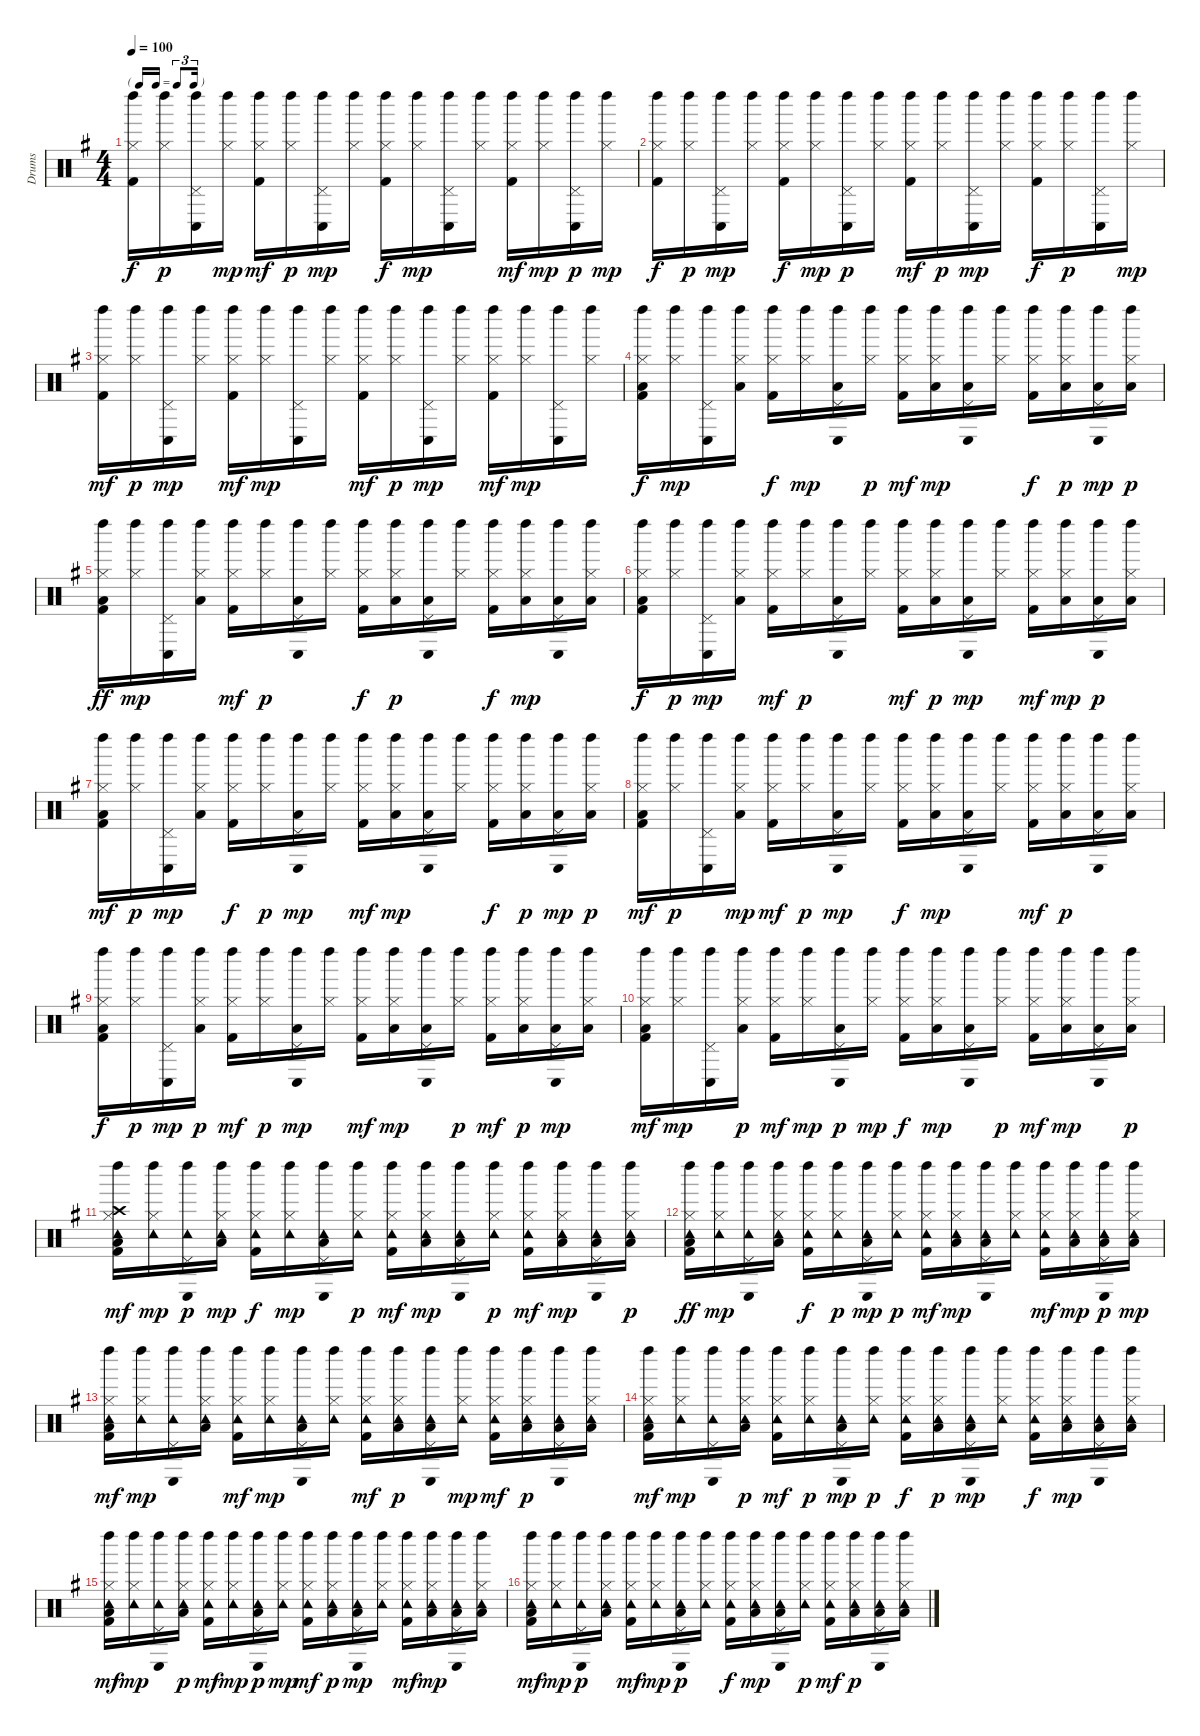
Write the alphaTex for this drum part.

\track ("Drums" "Drums") {instrument percussion}
\staff {score}
\articulation defaults
\ts (4 4)
\tf triplet16th
\tempo 100
\clef neutral
\ks g
("Kick (hit) 2" "Hi-Hat (closed)" "Left Maraca (hit)").16{dy f} ("Hi-Hat (closed)" "Left Maraca (hit)").16{dy p} ("Pedal Hi-Hat (hit)" "Conga low (hit)" "Left Maraca (hit)").16 ("Hi-Hat (closed)" "Left Maraca (hit)").16{dy mp} ("Kick (hit) 2" "Hi-Hat (closed)" "Left Maraca (hit)").16{dy mf} ("Hi-Hat (closed)" "Left Maraca (hit)").16{dy p} ("Pedal Hi-Hat (hit)" "Conga low (hit)" "Left Maraca (hit)").16{dy mp} ("Hi-Hat (closed)" "Left Maraca (hit)").16 ("Kick (hit) 2" "Hi-Hat (closed)" "Left Maraca (hit)").16{dy f} ("Hi-Hat (closed)" "Left Maraca (hit)").16{dy mp} ("Pedal Hi-Hat (hit)" "Conga low (hit)" "Left Maraca (hit)").16 ("Hi-Hat (closed)" "Left Maraca (hit)").16 ("Kick (hit) 2" "Hi-Hat (closed)" "Left Maraca (hit)").16{dy mf} ("Hi-Hat (closed)" "Left Maraca (hit)").16{dy mp} ("Pedal Hi-Hat (hit)" "Conga low (hit)" "Left Maraca (hit)").16{dy p} ("Hi-Hat (closed)" "Left Maraca (hit)").16{dy mp} |
("Kick (hit) 2" "Hi-Hat (closed)" "Left Maraca (hit)").16{dy f} ("Hi-Hat (closed)" "Left Maraca (hit)").16{dy p} ("Pedal Hi-Hat (hit)" "Conga low (hit)" "Left Maraca (hit)").16{dy mp} ("Hi-Hat (closed)" "Left Maraca (hit)").16 ("Kick (hit) 2" "Hi-Hat (closed)" "Left Maraca (hit)").16{dy f} ("Hi-Hat (closed)" "Left Maraca (hit)").16{dy mp} ("Pedal Hi-Hat (hit)" "Conga low (hit)" "Left Maraca (hit)").16{dy p} ("Hi-Hat (closed)" "Left Maraca (hit)").16 ("Kick (hit) 2" "Hi-Hat (closed)" "Left Maraca (hit)").16{dy mf} ("Hi-Hat (closed)" "Left Maraca (hit)").16{dy p} ("Pedal Hi-Hat (hit)" "Conga low (hit)" "Left Maraca (hit)").16{dy mp} ("Hi-Hat (closed)" "Left Maraca (hit)").16 ("Kick (hit) 2" "Hi-Hat (closed)" "Left Maraca (hit)").16{dy f} ("Hi-Hat (closed)" "Left Maraca (hit)").16{dy p} ("Pedal Hi-Hat (hit)" "Conga low (hit)" "Left Maraca (hit)").16 ("Hi-Hat (closed)" "Left Maraca (hit)").16{dy mp} |
("Kick (hit) 2" "Hi-Hat (closed)" "Left Maraca (hit)").16{dy mf} ("Hi-Hat (closed)" "Left Maraca (hit)").16{dy p} ("Pedal Hi-Hat (hit)" "Conga low (hit)" "Left Maraca (hit)").16{dy mp} ("Hi-Hat (closed)" "Left Maraca (hit)").16 ("Kick (hit) 2" "Hi-Hat (closed)" "Left Maraca (hit)").16{dy mf} ("Hi-Hat (closed)" "Left Maraca (hit)").16{dy mp} ("Pedal Hi-Hat (hit)" "Conga low (hit)" "Left Maraca (hit)").16 ("Hi-Hat (closed)" "Left Maraca (hit)").16 ("Kick (hit) 2" "Hi-Hat (closed)" "Left Maraca (hit)").16{dy mf} ("Hi-Hat (closed)" "Left Maraca (hit)").16{dy p} ("Pedal Hi-Hat (hit)" "Conga low (hit)" "Left Maraca (hit)").16{dy mp} ("Hi-Hat (closed)" "Left Maraca (hit)").16 ("Kick (hit) 2" "Hi-Hat (closed)" "Left Maraca (hit)").16{dy mf} ("Hi-Hat (closed)" "Left Maraca (hit)").16{dy mp} ("Pedal Hi-Hat (hit)" "Conga low (hit)" "Left Maraca (hit)").16 ("Hi-Hat (closed)" "Left Maraca (hit)").16 |
("Kick (hit) 2" "Low Floor Tom (hit)" "Hi-Hat (closed)" "Left Maraca (hit)").16{dy f} ("Hi-Hat (closed)" "Left Maraca (hit)").16{dy mp} ("Pedal Hi-Hat (hit)" "Conga low (hit)" "Left Maraca (hit)").16 ("Low Floor Tom (hit)" "Hi-Hat (closed)" "Left Maraca (hit)").16 ("Kick (hit) 2" "Hi-Hat (closed)" "Left Maraca (hit)").16{dy f} ("Hi-Hat (closed)" "Left Maraca (hit)").16{dy mp} ("Low Floor Tom (hit)" "Pedal Hi-Hat (hit)" "Conga low (hit)" "Left Maraca (hit)").16 ("Hi-Hat (closed)" "Left Maraca (hit)").16{dy p} ("Kick (hit) 2" "Hi-Hat (closed)" "Left Maraca (hit)").16{dy mf} ("Low Floor Tom (hit)" "Hi-Hat (closed)" "Left Maraca (hit)").16{dy mp} ("Low Floor Tom (hit)" "Pedal Hi-Hat (hit)" "Conga low (hit)" "Left Maraca (hit)").16 ("Hi-Hat (closed)" "Left Maraca (hit)").16 ("Kick (hit) 2" "Hi-Hat (closed)" "Left Maraca (hit)").16{dy f} ("Low Floor Tom (hit)" "Hi-Hat (closed)" "Left Maraca (hit)").16{dy p} ("Low Floor Tom (hit)" "Pedal Hi-Hat (hit)" "Conga low (hit)" "Left Maraca (hit)").16{dy mp} ("Low Floor Tom (hit)" "Hi-Hat (closed)" "Left Maraca (hit)").16{dy p} |
("Kick (hit) 2" "Low Floor Tom (hit)" "Hi-Hat (closed)" "Left Maraca (hit)").16{dy ff} ("Hi-Hat (closed)" "Left Maraca (hit)").16{dy mp} ("Pedal Hi-Hat (hit)" "Conga low (hit)" "Left Maraca (hit)").16 ("Low Floor Tom (hit)" "Hi-Hat (closed)" "Left Maraca (hit)").16 ("Kick (hit) 2" "Hi-Hat (closed)" "Left Maraca (hit)").16{dy mf} ("Hi-Hat (closed)" "Left Maraca (hit)").16{dy p} ("Low Floor Tom (hit)" "Pedal Hi-Hat (hit)" "Conga low (hit)" "Left Maraca (hit)").16 ("Hi-Hat (closed)" "Left Maraca (hit)").16 ("Kick (hit) 2" "Hi-Hat (closed)" "Left Maraca (hit)").16{dy f} ("Low Floor Tom (hit)" "Hi-Hat (closed)" "Left Maraca (hit)").16{dy p} ("Low Floor Tom (hit)" "Pedal Hi-Hat (hit)" "Conga low (hit)" "Left Maraca (hit)").16 ("Hi-Hat (closed)" "Left Maraca (hit)").16 ("Kick (hit) 2" "Hi-Hat (closed)" "Left Maraca (hit)").16{dy f} ("Low Floor Tom (hit)" "Hi-Hat (closed)" "Left Maraca (hit)").16{dy mp} ("Low Floor Tom (hit)" "Pedal Hi-Hat (hit)" "Conga low (hit)" "Left Maraca (hit)").16 ("Low Floor Tom (hit)" "Hi-Hat (closed)" "Left Maraca (hit)").16 |
("Kick (hit) 2" "Low Floor Tom (hit)" "Hi-Hat (closed)" "Left Maraca (hit)").16{dy f} ("Hi-Hat (closed)" "Left Maraca (hit)").16{dy p} ("Pedal Hi-Hat (hit)" "Conga low (hit)" "Left Maraca (hit)").16{dy mp} ("Low Floor Tom (hit)" "Hi-Hat (closed)" "Left Maraca (hit)").16 ("Kick (hit) 2" "Hi-Hat (closed)" "Left Maraca (hit)").16{dy mf} ("Hi-Hat (closed)" "Left Maraca (hit)").16{dy p} ("Low Floor Tom (hit)" "Pedal Hi-Hat (hit)" "Conga low (hit)" "Left Maraca (hit)").16 ("Hi-Hat (closed)" "Left Maraca (hit)").16 ("Kick (hit) 2" "Hi-Hat (closed)" "Left Maraca (hit)").16{dy mf} ("Low Floor Tom (hit)" "Hi-Hat (closed)" "Left Maraca (hit)").16{dy p} ("Low Floor Tom (hit)" "Pedal Hi-Hat (hit)" "Conga low (hit)" "Left Maraca (hit)").16{dy mp} ("Hi-Hat (closed)" "Left Maraca (hit)").16 ("Kick (hit) 2" "Hi-Hat (closed)" "Left Maraca (hit)").16{dy mf} ("Low Floor Tom (hit)" "Hi-Hat (closed)" "Left Maraca (hit)").16{dy mp} ("Low Floor Tom (hit)" "Pedal Hi-Hat (hit)" "Conga low (hit)" "Left Maraca (hit)").16{dy p} ("Low Floor Tom (hit)" "Hi-Hat (closed)" "Left Maraca (hit)").16 |
("Kick (hit) 2" "Low Floor Tom (hit)" "Hi-Hat (closed)" "Left Maraca (hit)").16{dy mf} ("Hi-Hat (closed)" "Left Maraca (hit)").16{dy p} ("Pedal Hi-Hat (hit)" "Conga low (hit)" "Left Maraca (hit)").16{dy mp} ("Low Floor Tom (hit)" "Hi-Hat (closed)" "Left Maraca (hit)").16 ("Kick (hit) 2" "Hi-Hat (closed)" "Left Maraca (hit)").16{dy f} ("Hi-Hat (closed)" "Left Maraca (hit)").16{dy p} ("Low Floor Tom (hit)" "Pedal Hi-Hat (hit)" "Conga low (hit)" "Left Maraca (hit)").16{dy mp} ("Hi-Hat (closed)" "Left Maraca (hit)").16 ("Kick (hit) 2" "Hi-Hat (closed)" "Left Maraca (hit)").16{dy mf} ("Low Floor Tom (hit)" "Hi-Hat (closed)" "Left Maraca (hit)").16{dy mp} ("Low Floor Tom (hit)" "Pedal Hi-Hat (hit)" "Conga low (hit)" "Left Maraca (hit)").16 ("Hi-Hat (closed)" "Left Maraca (hit)").16 ("Kick (hit) 2" "Hi-Hat (closed)" "Left Maraca (hit)").16{dy f} ("Low Floor Tom (hit)" "Hi-Hat (closed)" "Left Maraca (hit)").16{dy p} ("Low Floor Tom (hit)" "Pedal Hi-Hat (hit)" "Conga low (hit)" "Left Maraca (hit)").16{dy mp} ("Low Floor Tom (hit)" "Hi-Hat (closed)" "Left Maraca (hit)").16{dy p} |
("Kick (hit) 2" "Low Floor Tom (hit)" "Hi-Hat (closed)" "Left Maraca (hit)").16{dy mf} ("Hi-Hat (closed)" "Left Maraca (hit)").16{dy p} ("Pedal Hi-Hat (hit)" "Conga low (hit)" "Left Maraca (hit)").16 ("Low Floor Tom (hit)" "Hi-Hat (closed)" "Left Maraca (hit)").16{dy mp} ("Kick (hit) 2" "Hi-Hat (closed)" "Left Maraca (hit)").16{dy mf} ("Hi-Hat (closed)" "Left Maraca (hit)").16{dy p} ("Low Floor Tom (hit)" "Pedal Hi-Hat (hit)" "Conga low (hit)" "Left Maraca (hit)").16{dy mp} ("Hi-Hat (closed)" "Left Maraca (hit)").16 ("Kick (hit) 2" "Hi-Hat (closed)" "Left Maraca (hit)").16{dy f} ("Low Floor Tom (hit)" "Hi-Hat (closed)" "Left Maraca (hit)").16{dy mp} ("Low Floor Tom (hit)" "Pedal Hi-Hat (hit)" "Conga low (hit)" "Left Maraca (hit)").16 ("Hi-Hat (closed)" "Left Maraca (hit)").16 ("Kick (hit) 2" "Hi-Hat (closed)" "Left Maraca (hit)").16{dy mf} ("Low Floor Tom (hit)" "Hi-Hat (closed)" "Left Maraca (hit)").16{dy p} ("Low Floor Tom (hit)" "Pedal Hi-Hat (hit)" "Conga low (hit)" "Left Maraca (hit)").16 ("Low Floor Tom (hit)" "Hi-Hat (closed)" "Left Maraca (hit)").16 |
("Kick (hit) 2" "Low Floor Tom (hit)" "Hi-Hat (closed)" "Left Maraca (hit)").16{dy f} ("Hi-Hat (closed)" "Left Maraca (hit)").16{dy p} ("Pedal Hi-Hat (hit)" "Conga low (hit)" "Left Maraca (hit)").16{dy mp} ("Low Floor Tom (hit)" "Hi-Hat (closed)" "Left Maraca (hit)").16{dy p} ("Kick (hit) 2" "Hi-Hat (closed)" "Left Maraca (hit)").16{dy mf} ("Hi-Hat (closed)" "Left Maraca (hit)").16{dy p} ("Low Floor Tom (hit)" "Pedal Hi-Hat (hit)" "Conga low (hit)" "Left Maraca (hit)").16{dy mp} ("Hi-Hat (closed)" "Left Maraca (hit)").16 ("Kick (hit) 2" "Hi-Hat (closed)" "Left Maraca (hit)").16{dy mf} ("Low Floor Tom (hit)" "Hi-Hat (closed)" "Left Maraca (hit)").16{dy mp} ("Low Floor Tom (hit)" "Pedal Hi-Hat (hit)" "Conga low (hit)" "Left Maraca (hit)").16 ("Hi-Hat (closed)" "Left Maraca (hit)").16{dy p} ("Kick (hit) 2" "Hi-Hat (closed)" "Left Maraca (hit)").16{dy mf} ("Low Floor Tom (hit)" "Hi-Hat (closed)" "Left Maraca (hit)").16{dy p} ("Low Floor Tom (hit)" "Pedal Hi-Hat (hit)" "Conga low (hit)" "Left Maraca (hit)").16{dy mp} ("Low Floor Tom (hit)" "Hi-Hat (closed)" "Left Maraca (hit)").16 |
("Kick (hit) 2" "Low Floor Tom (hit)" "Hi-Hat (closed)" "Left Maraca (hit)").16{dy mf} ("Hi-Hat (closed)" "Left Maraca (hit)").16{dy mp} ("Pedal Hi-Hat (hit)" "Conga low (hit)" "Left Maraca (hit)").16 ("Low Floor Tom (hit)" "Hi-Hat (closed)" "Left Maraca (hit)").16{dy p} ("Kick (hit) 2" "Hi-Hat (closed)" "Left Maraca (hit)").16{dy mf} ("Hi-Hat (closed)" "Left Maraca (hit)").16{dy mp} ("Low Floor Tom (hit)" "Pedal Hi-Hat (hit)" "Conga low (hit)" "Left Maraca (hit)").16{dy p} ("Hi-Hat (closed)" "Left Maraca (hit)").16{dy mp} ("Kick (hit) 2" "Hi-Hat (closed)" "Left Maraca (hit)").16{dy f} ("Low Floor Tom (hit)" "Hi-Hat (closed)" "Left Maraca (hit)").16{dy mp} ("Low Floor Tom (hit)" "Pedal Hi-Hat (hit)" "Conga low (hit)" "Left Maraca (hit)").16 ("Hi-Hat (closed)" "Left Maraca (hit)").16{dy p} ("Kick (hit) 2" "Hi-Hat (closed)" "Left Maraca (hit)").16{dy mf} ("Low Floor Tom (hit)" "Hi-Hat (closed)" "Left Maraca (hit)").16{dy mp} ("Low Floor Tom (hit)" "Pedal Hi-Hat (hit)" "Conga low (hit)" "Left Maraca (hit)").16 ("Low Floor Tom (hit)" "Hi-Hat (closed)" "Left Maraca (hit)").16{dy p} |
("Kick (hit) 2" "Low Floor Tom (hit)" "Hi-Hat (closed)" "Crash high (hit)" "Tambourine (hit)" "Left Maraca (hit)").16{dy mf} ("Hi-Hat (closed)" "Tambourine (hit)" "Left Maraca (hit)").16{dy mp} ("Pedal Hi-Hat (hit)" "Tambourine (hit)" "Conga low (hit)" "Left Maraca (hit)").16{dy p} ("Low Floor Tom (hit)" "Hi-Hat (closed)" "Tambourine (hit)" "Left Maraca (hit)").16{dy mp} ("Kick (hit) 2" "Hi-Hat (closed)" "Tambourine (hit)" "Left Maraca (hit)").16{dy f} ("Hi-Hat (closed)" "Tambourine (hit)" "Left Maraca (hit)").16{dy mp} ("Low Floor Tom (hit)" "Pedal Hi-Hat (hit)" "Tambourine (hit)" "Conga low (hit)" "Left Maraca (hit)").16 ("Hi-Hat (closed)" "Tambourine (hit)" "Left Maraca (hit)").16{dy p} ("Kick (hit) 2" "Hi-Hat (closed)" "Tambourine (hit)" "Left Maraca (hit)").16{dy mf} ("Low Floor Tom (hit)" "Hi-Hat (closed)" "Tambourine (hit)" "Left Maraca (hit)").16{dy mp} ("Low Floor Tom (hit)" "Pedal Hi-Hat (hit)" "Tambourine (hit)" "Conga low (hit)" "Left Maraca (hit)").16 ("Hi-Hat (closed)" "Tambourine (hit)" "Left Maraca (hit)").16{dy p} ("Kick (hit) 2" "Hi-Hat (closed)" "Tambourine (hit)" "Left Maraca (hit)").16{dy mf} ("Low Floor Tom (hit)" "Hi-Hat (closed)" "Tambourine (hit)" "Left Maraca (hit)").16{dy mp} ("Low Floor Tom (hit)" "Pedal Hi-Hat (hit)" "Tambourine (hit)" "Conga low (hit)" "Left Maraca (hit)").16 ("Low Floor Tom (hit)" "Hi-Hat (closed)" "Tambourine (hit)" "Left Maraca (hit)").16{dy p} |
("Kick (hit) 2" "Low Floor Tom (hit)" "Hi-Hat (closed)" "Tambourine (hit)" "Left Maraca (hit)").16{dy ff} ("Hi-Hat (closed)" "Tambourine (hit)" "Left Maraca (hit)").16{dy mp} ("Pedal Hi-Hat (hit)" "Tambourine (hit)" "Conga low (hit)" "Left Maraca (hit)").16 ("Low Floor Tom (hit)" "Hi-Hat (closed)" "Tambourine (hit)" "Left Maraca (hit)").16 ("Kick (hit) 2" "Hi-Hat (closed)" "Tambourine (hit)" "Left Maraca (hit)").16{dy f} ("Hi-Hat (closed)" "Tambourine (hit)" "Left Maraca (hit)").16{dy p} ("Low Floor Tom (hit)" "Pedal Hi-Hat (hit)" "Tambourine (hit)" "Conga low (hit)" "Left Maraca (hit)").16{dy mp} ("Hi-Hat (closed)" "Tambourine (hit)" "Left Maraca (hit)").16{dy p} ("Kick (hit) 2" "Hi-Hat (closed)" "Tambourine (hit)" "Left Maraca (hit)").16{dy mf} ("Low Floor Tom (hit)" "Hi-Hat (closed)" "Tambourine (hit)" "Left Maraca (hit)").16{dy mp} ("Low Floor Tom (hit)" "Pedal Hi-Hat (hit)" "Tambourine (hit)" "Conga low (hit)" "Left Maraca (hit)").16 ("Hi-Hat (closed)" "Tambourine (hit)" "Left Maraca (hit)").16 ("Kick (hit) 2" "Hi-Hat (closed)" "Tambourine (hit)" "Left Maraca (hit)").16{dy mf} ("Low Floor Tom (hit)" "Hi-Hat (closed)" "Tambourine (hit)" "Left Maraca (hit)").16{dy mp} ("Low Floor Tom (hit)" "Pedal Hi-Hat (hit)" "Tambourine (hit)" "Conga low (hit)" "Left Maraca (hit)").16{dy p} ("Low Floor Tom (hit)" "Hi-Hat (closed)" "Tambourine (hit)" "Left Maraca (hit)").16{dy mp} |
("Kick (hit) 2" "Low Floor Tom (hit)" "Hi-Hat (closed)" "Tambourine (hit)" "Left Maraca (hit)").16{dy mf} ("Hi-Hat (closed)" "Tambourine (hit)" "Left Maraca (hit)").16{dy mp} ("Pedal Hi-Hat (hit)" "Tambourine (hit)" "Conga low (hit)" "Left Maraca (hit)").16 ("Low Floor Tom (hit)" "Hi-Hat (closed)" "Tambourine (hit)" "Left Maraca (hit)").16 ("Kick (hit) 2" "Hi-Hat (closed)" "Tambourine (hit)" "Left Maraca (hit)").16{dy mf} ("Hi-Hat (closed)" "Tambourine (hit)" "Left Maraca (hit)").16{dy mp} ("Low Floor Tom (hit)" "Pedal Hi-Hat (hit)" "Tambourine (hit)" "Conga low (hit)" "Left Maraca (hit)").16 ("Hi-Hat (closed)" "Tambourine (hit)" "Left Maraca (hit)").16 ("Kick (hit) 2" "Hi-Hat (closed)" "Tambourine (hit)" "Left Maraca (hit)").16{dy mf} ("Low Floor Tom (hit)" "Hi-Hat (closed)" "Tambourine (hit)" "Left Maraca (hit)").16{dy p} ("Low Floor Tom (hit)" "Pedal Hi-Hat (hit)" "Tambourine (hit)" "Conga low (hit)" "Left Maraca (hit)").16 ("Hi-Hat (closed)" "Tambourine (hit)" "Left Maraca (hit)").16{dy mp} ("Kick (hit) 2" "Hi-Hat (closed)" "Tambourine (hit)" "Left Maraca (hit)").16{dy mf} ("Low Floor Tom (hit)" "Hi-Hat (closed)" "Tambourine (hit)" "Left Maraca (hit)").16{dy p} ("Low Floor Tom (hit)" "Pedal Hi-Hat (hit)" "Tambourine (hit)" "Conga low (hit)" "Left Maraca (hit)").16 ("Low Floor Tom (hit)" "Hi-Hat (closed)" "Tambourine (hit)" "Left Maraca (hit)").16 |
("Kick (hit) 2" "Low Floor Tom (hit)" "Hi-Hat (closed)" "Tambourine (hit)" "Left Maraca (hit)").16{dy mf} ("Hi-Hat (closed)" "Tambourine (hit)" "Left Maraca (hit)").16{dy mp} ("Pedal Hi-Hat (hit)" "Tambourine (hit)" "Conga low (hit)" "Left Maraca (hit)").16 ("Low Floor Tom (hit)" "Hi-Hat (closed)" "Tambourine (hit)" "Left Maraca (hit)").16{dy p} ("Kick (hit) 2" "Hi-Hat (closed)" "Tambourine (hit)" "Left Maraca (hit)").16{dy mf} ("Hi-Hat (closed)" "Tambourine (hit)" "Left Maraca (hit)").16{dy p} ("Low Floor Tom (hit)" "Pedal Hi-Hat (hit)" "Tambourine (hit)" "Conga low (hit)" "Left Maraca (hit)").16{dy mp} ("Hi-Hat (closed)" "Tambourine (hit)" "Left Maraca (hit)").16{dy p} ("Kick (hit) 2" "Hi-Hat (closed)" "Tambourine (hit)" "Left Maraca (hit)").16{dy f} ("Low Floor Tom (hit)" "Hi-Hat (closed)" "Tambourine (hit)" "Left Maraca (hit)").16{dy p} ("Low Floor Tom (hit)" "Pedal Hi-Hat (hit)" "Tambourine (hit)" "Conga low (hit)" "Left Maraca (hit)").16{dy mp} ("Hi-Hat (closed)" "Tambourine (hit)" "Left Maraca (hit)").16 ("Kick (hit) 2" "Hi-Hat (closed)" "Tambourine (hit)" "Left Maraca (hit)").16{dy f} ("Low Floor Tom (hit)" "Hi-Hat (closed)" "Tambourine (hit)" "Left Maraca (hit)").16{dy mp} ("Low Floor Tom (hit)" "Pedal Hi-Hat (hit)" "Tambourine (hit)" "Conga low (hit)" "Left Maraca (hit)").16 ("Low Floor Tom (hit)" "Hi-Hat (closed)" "Tambourine (hit)" "Left Maraca (hit)").16 |
("Kick (hit) 2" "Low Floor Tom (hit)" "Hi-Hat (closed)" "Tambourine (hit)" "Left Maraca (hit)").16{dy mf} ("Hi-Hat (closed)" "Tambourine (hit)" "Left Maraca (hit)").16{dy mp} ("Pedal Hi-Hat (hit)" "Tambourine (hit)" "Conga low (hit)" "Left Maraca (hit)").16 ("Low Floor Tom (hit)" "Hi-Hat (closed)" "Tambourine (hit)" "Left Maraca (hit)").16{dy p} ("Kick (hit) 2" "Hi-Hat (closed)" "Tambourine (hit)" "Left Maraca (hit)").16{dy mf} ("Hi-Hat (closed)" "Tambourine (hit)" "Left Maraca (hit)").16{dy mp} ("Low Floor Tom (hit)" "Pedal Hi-Hat (hit)" "Tambourine (hit)" "Conga low (hit)" "Left Maraca (hit)").16{dy p} ("Hi-Hat (closed)" "Tambourine (hit)" "Left Maraca (hit)").16{dy mp} ("Kick (hit) 2" "Hi-Hat (closed)" "Tambourine (hit)" "Left Maraca (hit)").16{dy mf} ("Low Floor Tom (hit)" "Hi-Hat (closed)" "Tambourine (hit)" "Left Maraca (hit)").16{dy p} ("Low Floor Tom (hit)" "Pedal Hi-Hat (hit)" "Tambourine (hit)" "Conga low (hit)" "Left Maraca (hit)").16{dy mp} ("Hi-Hat (closed)" "Tambourine (hit)" "Left Maraca (hit)").16 ("Kick (hit) 2" "Hi-Hat (closed)" "Tambourine (hit)" "Left Maraca (hit)").16{dy mf} ("Low Floor Tom (hit)" "Hi-Hat (closed)" "Tambourine (hit)" "Left Maraca (hit)").16{dy mp} ("Low Floor Tom (hit)" "Pedal Hi-Hat (hit)" "Tambourine (hit)" "Conga low (hit)" "Left Maraca (hit)").16 ("Low Floor Tom (hit)" "Hi-Hat (closed)" "Tambourine (hit)" "Left Maraca (hit)").16 |
("Kick (hit) 2" "Low Floor Tom (hit)" "Hi-Hat (closed)" "Tambourine (hit)" "Left Maraca (hit)").16{dy mf} ("Hi-Hat (closed)" "Tambourine (hit)" "Left Maraca (hit)").16{dy mp} ("Pedal Hi-Hat (hit)" "Tambourine (hit)" "Conga low (hit)" "Left Maraca (hit)").16{dy p} ("Low Floor Tom (hit)" "Hi-Hat (closed)" "Tambourine (hit)" "Left Maraca (hit)").16 ("Kick (hit) 2" "Hi-Hat (closed)" "Tambourine (hit)" "Left Maraca (hit)").16{dy mf} ("Hi-Hat (closed)" "Tambourine (hit)" "Left Maraca (hit)").16{dy mp} ("Low Floor Tom (hit)" "Pedal Hi-Hat (hit)" "Tambourine (hit)" "Conga low (hit)" "Left Maraca (hit)").16{dy p} ("Hi-Hat (closed)" "Tambourine (hit)" "Left Maraca (hit)").16 ("Kick (hit) 2" "Hi-Hat (closed)" "Tambourine (hit)" "Left Maraca (hit)").16{dy f} ("Low Floor Tom (hit)" "Hi-Hat (closed)" "Tambourine (hit)" "Left Maraca (hit)").16{dy mp} ("Low Floor Tom (hit)" "Pedal Hi-Hat (hit)" "Tambourine (hit)" "Conga low (hit)" "Left Maraca (hit)").16 ("Hi-Hat (closed)" "Tambourine (hit)" "Left Maraca (hit)").16{dy p} ("Kick (hit) 2" "Hi-Hat (closed)" "Tambourine (hit)" "Left Maraca (hit)").16{dy mf} ("Low Floor Tom (hit)" "Hi-Hat (closed)" "Tambourine (hit)" "Left Maraca (hit)").16{dy p} ("Low Floor Tom (hit)" "Pedal Hi-Hat (hit)" "Tambourine (hit)" "Conga low (hit)" "Left Maraca (hit)").16 ("Low Floor Tom (hit)" "Hi-Hat (closed)" "Tambourine (hit)" "Left Maraca (hit)").16
